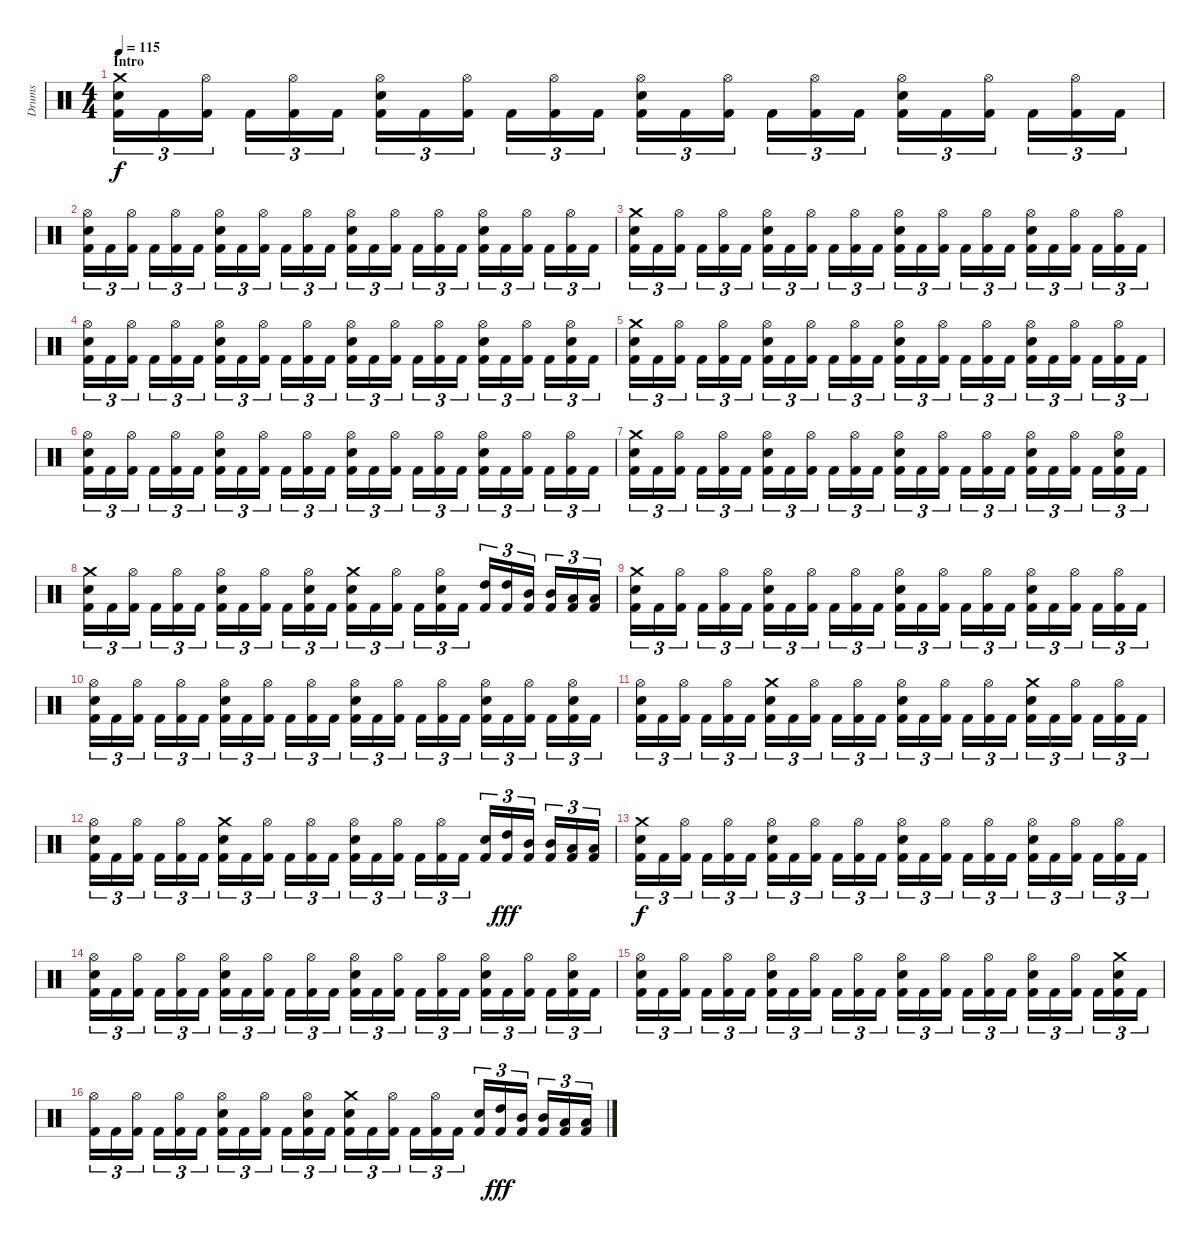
\track ("Drums" "Drums") {instrument percussion}
\staff {score}
\articulation defaults
\ts (4 4)
\section ("" "Intro")
\tempo 115
\clef neutral
\ks c
("Kick (hit) 2" "Electric Snare (hit)" "Crash medium (hit)").16{tu (3 2) dy f} "Kick (hit) 2".16{tu (3 2)} ("Kick (hit) 2" "Hi-Hat (open)").16{tu (3 2)} "Kick (hit) 2".16{tu (3 2)} ("Kick (hit) 2" "Hi-Hat (open)").16{tu (3 2)} "Kick (hit) 2".16{tu (3 2)} ("Kick (hit) 2" "Electric Snare (hit)" "Hi-Hat (open)").16{tu (3 2)} "Kick (hit) 2".16{tu (3 2)} ("Kick (hit) 2" "Hi-Hat (open)").16{tu (3 2)} "Kick (hit) 2".16{tu (3 2)} ("Kick (hit) 2" "Hi-Hat (open)").16{tu (3 2)} "Kick (hit) 2".16{tu (3 2)} ("Kick (hit) 2" "Electric Snare (hit)" "Hi-Hat (open)").16{tu (3 2)} "Kick (hit) 2".16{tu (3 2)} ("Kick (hit) 2" "Hi-Hat (open)").16{tu (3 2)} "Kick (hit) 2".16{tu (3 2)} ("Kick (hit) 2" "Hi-Hat (open)").16{tu (3 2)} "Kick (hit) 2".16{tu (3 2)} ("Kick (hit) 2" "Electric Snare (hit)" "Hi-Hat (open)").16{tu (3 2)} "Kick (hit) 2".16{tu (3 2)} ("Kick (hit) 2" "Hi-Hat (open)").16{tu (3 2)} "Kick (hit) 2".16{tu (3 2)} ("Kick (hit) 2" "Hi-Hat (open)").16{tu (3 2)} "Kick (hit) 2".16{tu (3 2)} |
("Kick (hit) 2" "Electric Snare (hit)" "Hi-Hat (open)").16{tu (3 2)} "Kick (hit) 2".16{tu (3 2)} ("Kick (hit) 2" "Hi-Hat (open)").16{tu (3 2)} "Kick (hit) 2".16{tu (3 2)} ("Kick (hit) 2" "Hi-Hat (open)").16{tu (3 2)} "Kick (hit) 2".16{tu (3 2)} ("Kick (hit) 2" "Electric Snare (hit)" "Hi-Hat (open)").16{tu (3 2)} "Kick (hit) 2".16{tu (3 2)} ("Kick (hit) 2" "Hi-Hat (open)").16{tu (3 2)} "Kick (hit) 2".16{tu (3 2)} ("Kick (hit) 2" "Hi-Hat (open)").16{tu (3 2)} "Kick (hit) 2".16{tu (3 2)} ("Kick (hit) 2" "Electric Snare (hit)" "Hi-Hat (open)").16{tu (3 2)} "Kick (hit) 2".16{tu (3 2)} ("Kick (hit) 2" "Hi-Hat (open)").16{tu (3 2)} "Kick (hit) 2".16{tu (3 2)} ("Kick (hit) 2" "Hi-Hat (open)").16{tu (3 2)} "Kick (hit) 2".16{tu (3 2)} ("Kick (hit) 2" "Electric Snare (hit)" "Hi-Hat (open)").16{tu (3 2)} "Kick (hit) 2".16{tu (3 2)} ("Kick (hit) 2" "Hi-Hat (open)").16{tu (3 2)} "Kick (hit) 2".16{tu (3 2)} ("Kick (hit) 2" "Hi-Hat (open)").16{tu (3 2)} "Kick (hit) 2".16{tu (3 2)} |
("Kick (hit) 2" "Electric Snare (hit)" "Crash medium (hit)").16{tu (3 2)} "Kick (hit) 2".16{tu (3 2)} ("Kick (hit) 2" "Hi-Hat (open)").16{tu (3 2)} "Kick (hit) 2".16{tu (3 2)} ("Kick (hit) 2" "Hi-Hat (open)").16{tu (3 2)} "Kick (hit) 2".16{tu (3 2)} ("Kick (hit) 2" "Electric Snare (hit)" "Hi-Hat (open)").16{tu (3 2)} "Kick (hit) 2".16{tu (3 2)} ("Kick (hit) 2" "Hi-Hat (open)").16{tu (3 2)} "Kick (hit) 2".16{tu (3 2)} ("Kick (hit) 2" "Hi-Hat (open)").16{tu (3 2)} "Kick (hit) 2".16{tu (3 2)} ("Kick (hit) 2" "Electric Snare (hit)" "Hi-Hat (open)").16{tu (3 2)} "Kick (hit) 2".16{tu (3 2)} ("Kick (hit) 2" "Hi-Hat (open)").16{tu (3 2)} "Kick (hit) 2".16{tu (3 2)} ("Kick (hit) 2" "Hi-Hat (open)").16{tu (3 2)} "Kick (hit) 2".16{tu (3 2)} ("Kick (hit) 2" "Electric Snare (hit)" "Hi-Hat (open)").16{tu (3 2)} "Kick (hit) 2".16{tu (3 2)} ("Kick (hit) 2" "Hi-Hat (open)").16{tu (3 2)} "Kick (hit) 2".16{tu (3 2)} ("Kick (hit) 2" "Hi-Hat (open)").16{tu (3 2)} "Kick (hit) 2".16{tu (3 2)} |
("Kick (hit) 2" "Electric Snare (hit)" "Hi-Hat (open)").16{tu (3 2)} "Kick (hit) 2".16{tu (3 2)} ("Kick (hit) 2" "Hi-Hat (open)").16{tu (3 2)} "Kick (hit) 2".16{tu (3 2)} ("Kick (hit) 2" "Hi-Hat (open)").16{tu (3 2)} "Kick (hit) 2".16{tu (3 2)} ("Kick (hit) 2" "Electric Snare (hit)" "Hi-Hat (open)").16{tu (3 2)} "Kick (hit) 2".16{tu (3 2)} ("Kick (hit) 2" "Hi-Hat (open)").16{tu (3 2)} "Kick (hit) 2".16{tu (3 2)} ("Kick (hit) 2" "Hi-Hat (open)").16{tu (3 2)} "Kick (hit) 2".16{tu (3 2)} ("Kick (hit) 2" "Electric Snare (hit)" "Hi-Hat (open)").16{tu (3 2)} "Kick (hit) 2".16{tu (3 2)} ("Kick (hit) 2" "Hi-Hat (open)").16{tu (3 2)} "Kick (hit) 2".16{tu (3 2)} ("Kick (hit) 2" "Hi-Hat (open)").16{tu (3 2)} "Kick (hit) 2".16{tu (3 2)} ("Kick (hit) 2" "Electric Snare (hit)" "Hi-Hat (open)").16{tu (3 2)} "Kick (hit) 2".16{tu (3 2)} ("Kick (hit) 2" "Hi-Hat (open)").16{tu (3 2)} "Kick (hit) 2".16{tu (3 2)} ("Kick (hit) 2" "Electric Snare (hit)" "Hi-Hat (open)").16{tu (3 2)} "Kick (hit) 2".16{tu (3 2)} |
("Kick (hit) 2" "Electric Snare (hit)" "Crash medium (hit)").16{tu (3 2)} "Kick (hit) 2".16{tu (3 2)} ("Kick (hit) 2" "Hi-Hat (open)").16{tu (3 2)} "Kick (hit) 2".16{tu (3 2)} ("Kick (hit) 2" "Hi-Hat (open)").16{tu (3 2)} "Kick (hit) 2".16{tu (3 2)} ("Kick (hit) 2" "Electric Snare (hit)" "Hi-Hat (open)").16{tu (3 2)} "Kick (hit) 2".16{tu (3 2)} ("Kick (hit) 2" "Hi-Hat (open)").16{tu (3 2)} "Kick (hit) 2".16{tu (3 2)} ("Kick (hit) 2" "Hi-Hat (open)").16{tu (3 2)} "Kick (hit) 2".16{tu (3 2)} ("Kick (hit) 2" "Electric Snare (hit)" "Hi-Hat (open)").16{tu (3 2)} "Kick (hit) 2".16{tu (3 2)} ("Kick (hit) 2" "Hi-Hat (open)").16{tu (3 2)} "Kick (hit) 2".16{tu (3 2)} ("Kick (hit) 2" "Hi-Hat (open)").16{tu (3 2)} "Kick (hit) 2".16{tu (3 2)} ("Kick (hit) 2" "Electric Snare (hit)" "Hi-Hat (open)").16{tu (3 2)} "Kick (hit) 2".16{tu (3 2)} ("Kick (hit) 2" "Hi-Hat (open)").16{tu (3 2)} "Kick (hit) 2".16{tu (3 2)} ("Kick (hit) 2" "Hi-Hat (open)").16{tu (3 2)} "Kick (hit) 2".16{tu (3 2)} |
("Kick (hit) 2" "Electric Snare (hit)" "Hi-Hat (open)").16{tu (3 2)} "Kick (hit) 2".16{tu (3 2)} ("Kick (hit) 2" "Hi-Hat (open)").16{tu (3 2)} "Kick (hit) 2".16{tu (3 2)} ("Kick (hit) 2" "Hi-Hat (open)").16{tu (3 2)} "Kick (hit) 2".16{tu (3 2)} ("Kick (hit) 2" "Electric Snare (hit)" "Hi-Hat (open)").16{tu (3 2)} "Kick (hit) 2".16{tu (3 2)} ("Kick (hit) 2" "Hi-Hat (open)").16{tu (3 2)} "Kick (hit) 2".16{tu (3 2)} ("Kick (hit) 2" "Hi-Hat (open)").16{tu (3 2)} "Kick (hit) 2".16{tu (3 2)} ("Kick (hit) 2" "Electric Snare (hit)" "Hi-Hat (open)").16{tu (3 2)} "Kick (hit) 2".16{tu (3 2)} ("Kick (hit) 2" "Hi-Hat (open)").16{tu (3 2)} "Kick (hit) 2".16{tu (3 2)} ("Kick (hit) 2" "Hi-Hat (open)").16{tu (3 2)} "Kick (hit) 2".16{tu (3 2)} ("Kick (hit) 2" "Electric Snare (hit)" "Hi-Hat (open)").16{tu (3 2)} "Kick (hit) 2".16{tu (3 2)} ("Kick (hit) 2" "Hi-Hat (open)").16{tu (3 2)} "Kick (hit) 2".16{tu (3 2)} ("Kick (hit) 2" "Hi-Hat (open)").16{tu (3 2)} "Kick (hit) 2".16{tu (3 2)} |
("Kick (hit) 2" "Electric Snare (hit)" "Crash medium (hit)").16{tu (3 2)} "Kick (hit) 2".16{tu (3 2)} ("Kick (hit) 2" "Hi-Hat (open)").16{tu (3 2)} "Kick (hit) 2".16{tu (3 2)} ("Kick (hit) 2" "Hi-Hat (open)").16{tu (3 2)} "Kick (hit) 2".16{tu (3 2)} ("Kick (hit) 2" "Electric Snare (hit)" "Hi-Hat (open)").16{tu (3 2)} "Kick (hit) 2".16{tu (3 2)} ("Kick (hit) 2" "Hi-Hat (open)").16{tu (3 2)} "Kick (hit) 2".16{tu (3 2)} ("Kick (hit) 2" "Hi-Hat (open)").16{tu (3 2)} "Kick (hit) 2".16{tu (3 2)} ("Kick (hit) 2" "Electric Snare (hit)" "Hi-Hat (open)").16{tu (3 2)} "Kick (hit) 2".16{tu (3 2)} ("Kick (hit) 2" "Hi-Hat (open)").16{tu (3 2)} "Kick (hit) 2".16{tu (3 2)} ("Kick (hit) 2" "Hi-Hat (open)").16{tu (3 2)} "Kick (hit) 2".16{tu (3 2)} ("Kick (hit) 2" "Electric Snare (hit)" "Hi-Hat (open)").16{tu (3 2)} "Kick (hit) 2".16{tu (3 2)} ("Kick (hit) 2" "Hi-Hat (open)").16{tu (3 2)} "Kick (hit) 2".16{tu (3 2)} ("Kick (hit) 2" "Electric Snare (hit)" "Hi-Hat (open)").16{tu (3 2)} "Kick (hit) 2".16{tu (3 2)} |
("Kick (hit) 2" "Electric Snare (hit)" "Crash medium (hit)").16{tu (3 2)} "Kick (hit) 2".16{tu (3 2)} ("Kick (hit) 2" "Hi-Hat (open)").16{tu (3 2)} "Kick (hit) 2".16{tu (3 2)} ("Kick (hit) 2" "Hi-Hat (open)").16{tu (3 2)} "Kick (hit) 2".16{tu (3 2)} ("Kick (hit) 2" "Electric Snare (hit)" "Hi-Hat (open)").16{tu (3 2)} "Kick (hit) 2".16{tu (3 2)} ("Kick (hit) 2" "Hi-Hat (open)").16{tu (3 2)} "Kick (hit) 2".16{tu (3 2)} ("Kick (hit) 2" "Electric Snare (hit)" "Hi-Hat (open)").16{tu (3 2)} "Kick (hit) 2".16{tu (3 2)} ("Kick (hit) 2" "Electric Snare (hit)" "Crash medium (hit)").16{tu (3 2)} "Kick (hit) 2".16{tu (3 2)} ("Kick (hit) 2" "Hi-Hat (open)").16{tu (3 2)} "Kick (hit) 2".16{tu (3 2)} ("Kick (hit) 2" "Electric Snare (hit)" "Hi-Hat (open)").16{tu (3 2)} "Kick (hit) 2".16{tu (3 2)} ("Kick (hit) 2" "High Tom (hit)").16{tu (3 2)} ("Kick (hit) 2" "High Tom (hit)").16{tu (3 2)} ("Kick (hit) 2" "Mid Tom (hit)").16{tu (3 2)} ("Kick (hit) 2" "Mid Tom (hit)").16{tu (3 2)} ("Kick (hit) 2" "Low Tom (hit)").16{tu (3 2)} ("Kick (hit) 2" "Low Tom (hit)").16{tu (3 2)} |
("Kick (hit) 2" "Electric Snare (hit)" "Crash medium (hit)").16{tu (3 2)} "Kick (hit) 2".16{tu (3 2)} ("Kick (hit) 2" "Hi-Hat (open)").16{tu (3 2)} "Kick (hit) 2".16{tu (3 2)} ("Kick (hit) 2" "Hi-Hat (open)").16{tu (3 2)} "Kick (hit) 2".16{tu (3 2)} ("Kick (hit) 2" "Electric Snare (hit)" "Hi-Hat (open)").16{tu (3 2)} "Kick (hit) 2".16{tu (3 2)} ("Kick (hit) 2" "Hi-Hat (open)").16{tu (3 2)} "Kick (hit) 2".16{tu (3 2)} ("Kick (hit) 2" "Hi-Hat (open)").16{tu (3 2)} "Kick (hit) 2".16{tu (3 2)} ("Kick (hit) 2" "Electric Snare (hit)" "Hi-Hat (open)").16{tu (3 2)} "Kick (hit) 2".16{tu (3 2)} ("Kick (hit) 2" "Hi-Hat (open)").16{tu (3 2)} "Kick (hit) 2".16{tu (3 2)} ("Kick (hit) 2" "Hi-Hat (open)").16{tu (3 2)} "Kick (hit) 2".16{tu (3 2)} ("Kick (hit) 2" "Electric Snare (hit)" "Hi-Hat (open)").16{tu (3 2)} "Kick (hit) 2".16{tu (3 2)} ("Kick (hit) 2" "Hi-Hat (open)").16{tu (3 2)} "Kick (hit) 2".16{tu (3 2)} ("Kick (hit) 2" "Hi-Hat (open)").16{tu (3 2)} "Kick (hit) 2".16{tu (3 2)} |
("Kick (hit) 2" "Electric Snare (hit)" "Hi-Hat (open)").16{tu (3 2)} "Kick (hit) 2".16{tu (3 2)} ("Kick (hit) 2" "Hi-Hat (open)").16{tu (3 2)} "Kick (hit) 2".16{tu (3 2)} ("Kick (hit) 2" "Hi-Hat (open)").16{tu (3 2)} "Kick (hit) 2".16{tu (3 2)} ("Kick (hit) 2" "Electric Snare (hit)" "Hi-Hat (open)").16{tu (3 2)} "Kick (hit) 2".16{tu (3 2)} ("Kick (hit) 2" "Hi-Hat (open)").16{tu (3 2)} "Kick (hit) 2".16{tu (3 2)} ("Kick (hit) 2" "Hi-Hat (open)").16{tu (3 2)} "Kick (hit) 2".16{tu (3 2)} ("Kick (hit) 2" "Electric Snare (hit)" "Hi-Hat (open)").16{tu (3 2)} "Kick (hit) 2".16{tu (3 2)} ("Kick (hit) 2" "Hi-Hat (open)").16{tu (3 2)} "Kick (hit) 2".16{tu (3 2)} ("Kick (hit) 2" "Hi-Hat (open)").16{tu (3 2)} "Kick (hit) 2".16{tu (3 2)} ("Kick (hit) 2" "Electric Snare (hit)" "Hi-Hat (open)").16{tu (3 2)} "Kick (hit) 2".16{tu (3 2)} ("Kick (hit) 2" "Hi-Hat (open)").16{tu (3 2)} "Kick (hit) 2".16{tu (3 2)} ("Kick (hit) 2" "Electric Snare (hit)" "Hi-Hat (open)").16{tu (3 2)} "Kick (hit) 2".16{tu (3 2)} |
("Kick (hit) 2" "Electric Snare (hit)" "Hi-Hat (open)").16{tu (3 2)} "Kick (hit) 2".16{tu (3 2)} ("Kick (hit) 2" "Hi-Hat (open)").16{tu (3 2)} "Kick (hit) 2".16{tu (3 2)} ("Kick (hit) 2" "Hi-Hat (open)").16{tu (3 2)} "Kick (hit) 2".16{tu (3 2)} ("Kick (hit) 2" "Electric Snare (hit)" "Crash medium (hit)").16{tu (3 2)} "Kick (hit) 2".16{tu (3 2)} ("Kick (hit) 2" "Hi-Hat (open)").16{tu (3 2)} "Kick (hit) 2".16{tu (3 2)} ("Kick (hit) 2" "Hi-Hat (open)").16{tu (3 2)} "Kick (hit) 2".16{tu (3 2)} ("Kick (hit) 2" "Electric Snare (hit)" "Hi-Hat (open)").16{tu (3 2)} "Kick (hit) 2".16{tu (3 2)} ("Kick (hit) 2" "Hi-Hat (open)").16{tu (3 2)} "Kick (hit) 2".16{tu (3 2)} ("Kick (hit) 2" "Hi-Hat (open)").16{tu (3 2)} "Kick (hit) 2".16{tu (3 2)} ("Kick (hit) 2" "Electric Snare (hit)" "Crash medium (hit)").16{tu (3 2)} "Kick (hit) 2".16{tu (3 2)} ("Kick (hit) 2" "Hi-Hat (open)").16{tu (3 2)} "Kick (hit) 2".16{tu (3 2)} ("Kick (hit) 2" "Hi-Hat (open)").16{tu (3 2)} "Kick (hit) 2".16{tu (3 2)} |
("Kick (hit) 2" "Electric Snare (hit)" "Hi-Hat (open)").16{tu (3 2)} "Kick (hit) 2".16{tu (3 2)} ("Kick (hit) 2" "Hi-Hat (open)").16{tu (3 2)} "Kick (hit) 2".16{tu (3 2)} ("Kick (hit) 2" "Hi-Hat (open)").16{tu (3 2)} "Kick (hit) 2".16{tu (3 2)} ("Kick (hit) 2" "Electric Snare (hit)" "Crash medium (hit)").16{tu (3 2)} "Kick (hit) 2".16{tu (3 2)} ("Kick (hit) 2" "Hi-Hat (open)").16{tu (3 2)} "Kick (hit) 2".16{tu (3 2)} ("Kick (hit) 2" "Hi-Hat (open)").16{tu (3 2)} "Kick (hit) 2".16{tu (3 2)} ("Kick (hit) 2" "Electric Snare (hit)" "Hi-Hat (open)").16{tu (3 2)} "Kick (hit) 2".16{tu (3 2)} ("Kick (hit) 2" "Hi-Hat (open)").16{tu (3 2)} "Kick (hit) 2".16{tu (3 2)} ("Kick (hit) 2" "Hi-Hat (open)").16{tu (3 2)} "Kick (hit) 2".16{tu (3 2)} ("Kick (hit) 2" "Electric Snare (hit)").16{tu (3 2)} ("Kick (hit) 2" "High Tom (hit)").16{tu (3 2) dy fff} ("Kick (hit) 2" "Mid Tom (hit)").16{tu (3 2)} ("Kick (hit) 2" "Mid Tom (hit)").16{tu (3 2)} ("Kick (hit) 2" "Low Tom (hit)").16{tu (3 2)} ("Kick (hit) 2" "Low Tom (hit)").16{tu (3 2)} |
("Kick (hit) 2" "Electric Snare (hit)" "Crash medium (hit)").16{tu (3 2) dy f} "Kick (hit) 2".16{tu (3 2)} ("Kick (hit) 2" "Hi-Hat (open)").16{tu (3 2)} "Kick (hit) 2".16{tu (3 2)} ("Kick (hit) 2" "Hi-Hat (open)").16{tu (3 2)} "Kick (hit) 2".16{tu (3 2)} ("Kick (hit) 2" "Electric Snare (hit)" "Hi-Hat (open)").16{tu (3 2)} "Kick (hit) 2".16{tu (3 2)} ("Kick (hit) 2" "Hi-Hat (open)").16{tu (3 2)} "Kick (hit) 2".16{tu (3 2)} ("Kick (hit) 2" "Hi-Hat (open)").16{tu (3 2)} "Kick (hit) 2".16{tu (3 2)} ("Kick (hit) 2" "Electric Snare (hit)" "Hi-Hat (open)").16{tu (3 2)} "Kick (hit) 2".16{tu (3 2)} ("Kick (hit) 2" "Hi-Hat (open)").16{tu (3 2)} "Kick (hit) 2".16{tu (3 2)} ("Kick (hit) 2" "Hi-Hat (open)").16{tu (3 2)} "Kick (hit) 2".16{tu (3 2)} ("Kick (hit) 2" "Electric Snare (hit)" "Hi-Hat (open)").16{tu (3 2)} "Kick (hit) 2".16{tu (3 2)} ("Kick (hit) 2" "Hi-Hat (open)").16{tu (3 2)} "Kick (hit) 2".16{tu (3 2)} ("Kick (hit) 2" "Hi-Hat (open)").16{tu (3 2)} "Kick (hit) 2".16{tu (3 2)} |
("Kick (hit) 2" "Electric Snare (hit)" "Hi-Hat (open)").16{tu (3 2)} "Kick (hit) 2".16{tu (3 2)} ("Kick (hit) 2" "Hi-Hat (open)").16{tu (3 2)} "Kick (hit) 2".16{tu (3 2)} ("Kick (hit) 2" "Hi-Hat (open)").16{tu (3 2)} "Kick (hit) 2".16{tu (3 2)} ("Kick (hit) 2" "Electric Snare (hit)" "Hi-Hat (open)").16{tu (3 2)} "Kick (hit) 2".16{tu (3 2)} ("Kick (hit) 2" "Hi-Hat (open)").16{tu (3 2)} "Kick (hit) 2".16{tu (3 2)} ("Kick (hit) 2" "Hi-Hat (open)").16{tu (3 2)} "Kick (hit) 2".16{tu (3 2)} ("Kick (hit) 2" "Electric Snare (hit)" "Hi-Hat (open)").16{tu (3 2)} "Kick (hit) 2".16{tu (3 2)} ("Kick (hit) 2" "Hi-Hat (open)").16{tu (3 2)} "Kick (hit) 2".16{tu (3 2)} ("Kick (hit) 2" "Hi-Hat (open)").16{tu (3 2)} "Kick (hit) 2".16{tu (3 2)} ("Kick (hit) 2" "Electric Snare (hit)" "Hi-Hat (open)").16{tu (3 2)} "Kick (hit) 2".16{tu (3 2)} ("Kick (hit) 2" "Hi-Hat (open)").16{tu (3 2)} "Kick (hit) 2".16{tu (3 2)} ("Kick (hit) 2" "Electric Snare (hit)" "Hi-Hat (open)").16{tu (3 2)} "Kick (hit) 2".16{tu (3 2)} |
("Kick (hit) 2" "Electric Snare (hit)" "Hi-Hat (open)").16{tu (3 2)} "Kick (hit) 2".16{tu (3 2)} ("Kick (hit) 2" "Hi-Hat (open)").16{tu (3 2)} "Kick (hit) 2".16{tu (3 2)} ("Kick (hit) 2" "Hi-Hat (open)").16{tu (3 2)} "Kick (hit) 2".16{tu (3 2)} ("Kick (hit) 2" "Electric Snare (hit)" "Hi-Hat (open)").16{tu (3 2)} "Kick (hit) 2".16{tu (3 2)} ("Kick (hit) 2" "Hi-Hat (open)").16{tu (3 2)} "Kick (hit) 2".16{tu (3 2)} ("Kick (hit) 2" "Hi-Hat (open)").16{tu (3 2)} "Kick (hit) 2".16{tu (3 2)} ("Kick (hit) 2" "Electric Snare (hit)" "Hi-Hat (open)").16{tu (3 2)} "Kick (hit) 2".16{tu (3 2)} ("Kick (hit) 2" "Hi-Hat (open)").16{tu (3 2)} "Kick (hit) 2".16{tu (3 2)} ("Kick (hit) 2" "Hi-Hat (open)").16{tu (3 2)} "Kick (hit) 2".16{tu (3 2)} ("Kick (hit) 2" "Electric Snare (hit)" "Hi-Hat (open)").16{tu (3 2)} "Kick (hit) 2".16{tu (3 2)} ("Kick (hit) 2" "Hi-Hat (open)").16{tu (3 2)} "Kick (hit) 2".16{tu (3 2)} ("Kick (hit) 2" "Electric Snare (hit)" "Crash medium (hit)").16{tu (3 2)} "Kick (hit) 2".16{tu (3 2)} |
("Kick (hit) 2" "Hi-Hat (open)").16{tu (3 2)} "Kick (hit) 2".16{tu (3 2)} ("Kick (hit) 2" "Hi-Hat (open)").16{tu (3 2)} "Kick (hit) 2".16{tu (3 2)} ("Kick (hit) 2" "Hi-Hat (open)").16{tu (3 2)} "Kick (hit) 2".16{tu (3 2)} ("Kick (hit) 2" "Electric Snare (hit)" "Hi-Hat (open)").16{tu (3 2)} "Kick (hit) 2".16{tu (3 2)} ("Kick (hit) 2" "Hi-Hat (open)").16{tu (3 2)} "Kick (hit) 2".16{tu (3 2)} ("Kick (hit) 2" "Electric Snare (hit)" "Hi-Hat (open)").16{tu (3 2)} "Kick (hit) 2".16{tu (3 2)} ("Kick (hit) 2" "Electric Snare (hit)" "Crash medium (hit)").16{tu (3 2)} "Kick (hit) 2".16{tu (3 2)} ("Kick (hit) 2" "Hi-Hat (open)").16{tu (3 2)} "Kick (hit) 2".16{tu (3 2)} ("Kick (hit) 2" "Hi-Hat (open)").16{tu (3 2)} "Kick (hit) 2".16{tu (3 2)} ("Kick (hit) 2" "Electric Snare (hit)").16{tu (3 2)} ("Kick (hit) 2" "High Tom (hit)").16{tu (3 2) dy fff} ("Kick (hit) 2" "Mid Tom (hit)").16{tu (3 2)} ("Kick (hit) 2" "Mid Tom (hit)").16{tu (3 2)} ("Kick (hit) 2" "Low Tom (hit)").16{tu (3 2)} ("Kick (hit) 2" "Low Tom (hit)").16{tu (3 2)}
